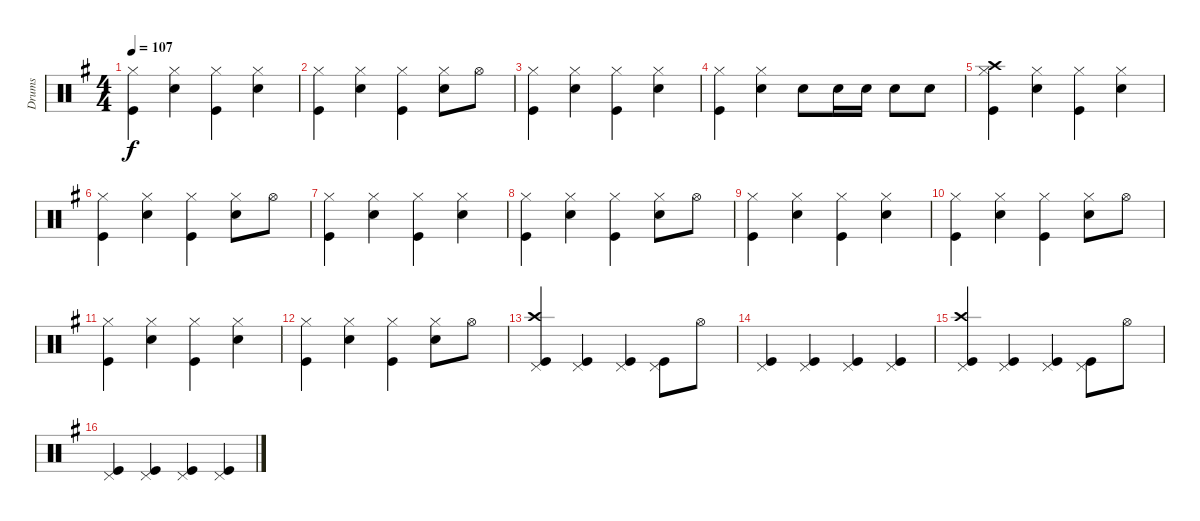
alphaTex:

\track ("Drums" "Drums") {instrument percussion}
\staff {score}
\articulation defaults
\ts (4 4)
\tempo 107
\clef neutral
\ks g
("Hi-Hat (closed)" "Kick (hit)").4{dy f} ("Hi-Hat (closed)" "Snare (hit) 2").4 ("Hi-Hat (closed)" "Kick (hit)").4 ("Hi-Hat (closed)" "Snare (hit) 2").4 |
("Hi-Hat (closed)" "Kick (hit)").4 ("Hi-Hat (closed)" "Snare (hit) 2").4 ("Hi-Hat (closed)" "Kick (hit)").4 ("Hi-Hat (closed)" "Snare (hit) 2").8 "Hi-Hat (open)".8 |
("Hi-Hat (closed)" "Kick (hit)").4 ("Hi-Hat (closed)" "Snare (hit) 2").4 ("Hi-Hat (closed)" "Kick (hit)").4 ("Hi-Hat (closed)" "Snare (hit) 2").4 |
("Hi-Hat (closed)" "Kick (hit)").4 ("Hi-Hat (closed)" "Snare (hit) 2").4 "Snare (hit) 2".8 "Snare (hit) 2".16 "Snare (hit) 2".16 "Snare (hit) 2".8 "Snare (hit) 2".8 |
("Crash high (hit)" "Hi-Hat (closed)" "Kick (hit)").4 ("Hi-Hat (closed)" "Snare (hit) 2").4 ("Hi-Hat (closed)" "Kick (hit)").4 ("Hi-Hat (closed)" "Snare (hit) 2").4 |
("Hi-Hat (closed)" "Kick (hit)").4 ("Hi-Hat (closed)" "Snare (hit) 2").4 ("Hi-Hat (closed)" "Kick (hit)").4 ("Hi-Hat (closed)" "Snare (hit) 2").8 "Hi-Hat (open)".8 |
("Hi-Hat (closed)" "Kick (hit)").4 ("Hi-Hat (closed)" "Snare (hit) 2").4 ("Hi-Hat (closed)" "Kick (hit)").4 ("Hi-Hat (closed)" "Snare (hit) 2").4 |
("Hi-Hat (closed)" "Kick (hit)").4 ("Hi-Hat (closed)" "Snare (hit) 2").4 ("Hi-Hat (closed)" "Kick (hit)").4 ("Hi-Hat (closed)" "Snare (hit) 2").8 "Hi-Hat (open)".8 |
("Hi-Hat (closed)" "Kick (hit)").4 ("Hi-Hat (closed)" "Snare (hit) 2").4 ("Hi-Hat (closed)" "Kick (hit)").4 ("Hi-Hat (closed)" "Snare (hit) 2").4 |
("Hi-Hat (closed)" "Kick (hit)").4 ("Hi-Hat (closed)" "Snare (hit) 2").4 ("Hi-Hat (closed)" "Kick (hit)").4 ("Hi-Hat (closed)" "Snare (hit) 2").8 "Hi-Hat (open)".8 |
("Hi-Hat (closed)" "Kick (hit)").4 ("Hi-Hat (closed)" "Snare (hit) 2").4 ("Hi-Hat (closed)" "Kick (hit)").4 ("Hi-Hat (closed)" "Snare (hit) 2").4 |
("Hi-Hat (closed)" "Kick (hit)").4 ("Hi-Hat (closed)" "Snare (hit) 2").4 ("Hi-Hat (closed)" "Kick (hit)").4 ("Hi-Hat (closed)" "Snare (hit) 2").8 "Hi-Hat (open)".8 |
("Crash high (hit)" "Pedal Hi-Hat (hit)" "Kick (hit)").4{volume 12} ("Pedal Hi-Hat (hit)" "Kick (hit)").4 ("Pedal Hi-Hat (hit)" "Kick (hit)").4 ("Pedal Hi-Hat (hit)" "Kick (hit)").8 "Hi-Hat (open)".8 |
("Pedal Hi-Hat (hit)" "Kick (hit)").4{volume 10} ("Pedal Hi-Hat (hit)" "Kick (hit)").4 ("Pedal Hi-Hat (hit)" "Kick (hit)").4 ("Pedal Hi-Hat (hit)" "Kick (hit)").4 |
("Crash high (hit)" "Pedal Hi-Hat (hit)" "Kick (hit)").4{volume 8} ("Pedal Hi-Hat (hit)" "Kick (hit)").4 ("Pedal Hi-Hat (hit)" "Kick (hit)").4 ("Pedal Hi-Hat (hit)" "Kick (hit)").8 "Hi-Hat (open)".8 |
("Pedal Hi-Hat (hit)" "Kick (hit)").4{volume 6} ("Pedal Hi-Hat (hit)" "Kick (hit)").4 ("Pedal Hi-Hat (hit)" "Kick (hit)").4 ("Pedal Hi-Hat (hit)" "Kick (hit)").4
